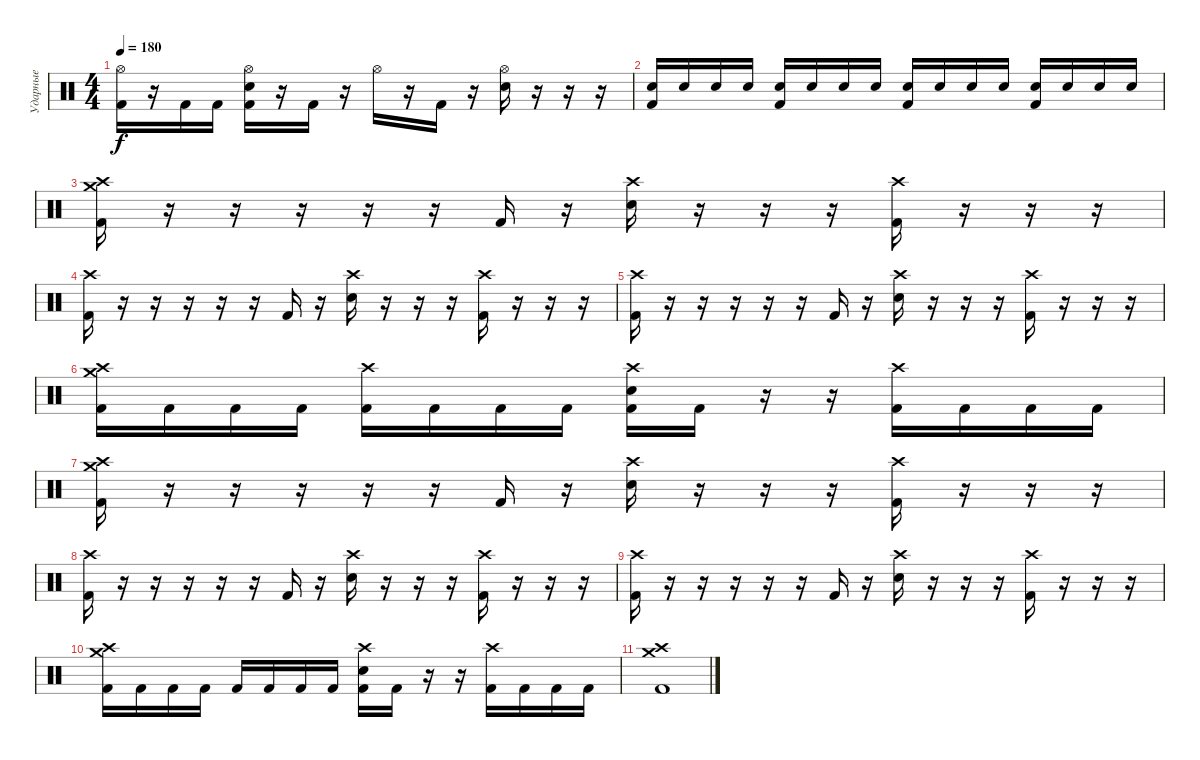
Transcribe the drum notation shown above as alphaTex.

\track ("Ударные" "Ударные") {instrument percussion}
\staff {score}
\articulation defaults
\ts (4 4)
\tempo 180
\clef neutral
\ks c
("Hi-Hat (open)" "Kick (hit) 2").16{dy f} r.16 "Kick (hit) 2".16 "Kick (hit) 2".16 ("Hi-Hat (open)" "Electric Snare (hit)" "Kick (hit) 2").16 r.16 "Kick (hit) 2".16 r.16 "Hi-Hat (open)".16 r.16 "Kick (hit) 2".16 r.16 ("Hi-Hat (open)" "Electric Snare (hit)").16 r.16 r.16 r.16 |
("Electric Snare (hit)" "Kick (hit) 2").16 "Electric Snare (hit)".16 "Electric Snare (hit)".16 "Electric Snare (hit)".16 ("Electric Snare (hit)" "Kick (hit) 2").16 "Electric Snare (hit)".16 "Electric Snare (hit)".16 "Electric Snare (hit)".16 ("Electric Snare (hit)" "Kick (hit) 2").16 "Electric Snare (hit)".16 "Electric Snare (hit)".16 "Electric Snare (hit)".16 ("Electric Snare (hit)" "Kick (hit) 2").16 "Electric Snare (hit)".16 "Electric Snare (hit)".16 "Electric Snare (hit)".16 |
("Crash medium (hit)" "Crash high (hit)" "Kick (hit) 2").16 r.16 r.16 r.16 r.16 r.16 "Kick (hit) 2".16 r.16 ("Crash high (hit)" "Electric Snare (hit)").16 r.16 r.16 r.16 ("Crash high (hit)" "Kick (hit) 2").16 r.16 r.16 r.16 |
("Crash high (hit)" "Kick (hit) 2").16 r.16 r.16 r.16 r.16 r.16 "Kick (hit) 2".16 r.16 ("Crash high (hit)" "Electric Snare (hit)").16 r.16 r.16 r.16 ("Crash high (hit)" "Kick (hit) 2").16 r.16 r.16 r.16 |
("Crash high (hit)" "Kick (hit) 2").16 r.16 r.16 r.16 r.16 r.16 "Kick (hit) 2".16 r.16 ("Crash high (hit)" "Electric Snare (hit)").16 r.16 r.16 r.16 ("Crash high (hit)" "Kick (hit) 2").16 r.16 r.16 r.16 |
("Crash medium (hit)" "Crash high (hit)" "Kick (hit) 2").16 "Kick (hit) 2".16 "Kick (hit) 2".16 "Kick (hit) 2".16 ("Crash high (hit)" "Kick (hit) 2").16 "Kick (hit) 2".16 "Kick (hit) 2".16 "Kick (hit) 2".16 ("Crash high (hit)" "Electric Snare (hit)" "Kick (hit) 2").16 "Kick (hit) 2".16 r.16 r.16 ("Crash high (hit)" "Kick (hit) 2").16 "Kick (hit) 2".16 "Kick (hit) 2".16 "Kick (hit) 2".16 |
("Crash medium (hit)" "Crash high (hit)" "Kick (hit) 2").16 r.16 r.16 r.16 r.16 r.16 "Kick (hit) 2".16 r.16 ("Crash high (hit)" "Electric Snare (hit)").16 r.16 r.16 r.16 ("Crash high (hit)" "Kick (hit) 2").16 r.16 r.16 r.16 |
("Crash high (hit)" "Kick (hit) 2").16 r.16 r.16 r.16 r.16 r.16 "Kick (hit) 2".16 r.16 ("Crash high (hit)" "Electric Snare (hit)").16 r.16 r.16 r.16 ("Crash high (hit)" "Kick (hit) 2").16 r.16 r.16 r.16 |
("Crash high (hit)" "Kick (hit) 2").16 r.16 r.16 r.16 r.16 r.16 "Kick (hit) 2".16 r.16 ("Crash high (hit)" "Electric Snare (hit)").16 r.16 r.16 r.16 ("Crash high (hit)" "Kick (hit) 2").16 r.16 r.16 r.16 |
("Crash medium (hit)" "Crash high (hit)" "Kick (hit) 2").16 "Kick (hit) 2".16 "Kick (hit) 2".16 "Kick (hit) 2".16 "Kick (hit) 2".16 "Kick (hit) 2".16 "Kick (hit) 2".16 "Kick (hit) 2".16 ("Crash high (hit)" "Electric Snare (hit)" "Kick (hit) 2").16 "Kick (hit) 2".16 r.16 r.16 ("Crash high (hit)" "Kick (hit) 2").16 "Kick (hit) 2".16 "Kick (hit) 2".16 "Kick (hit) 2".16 |
("Crash medium (hit)" "Crash high (hit)" "Kick (hit) 2").1
